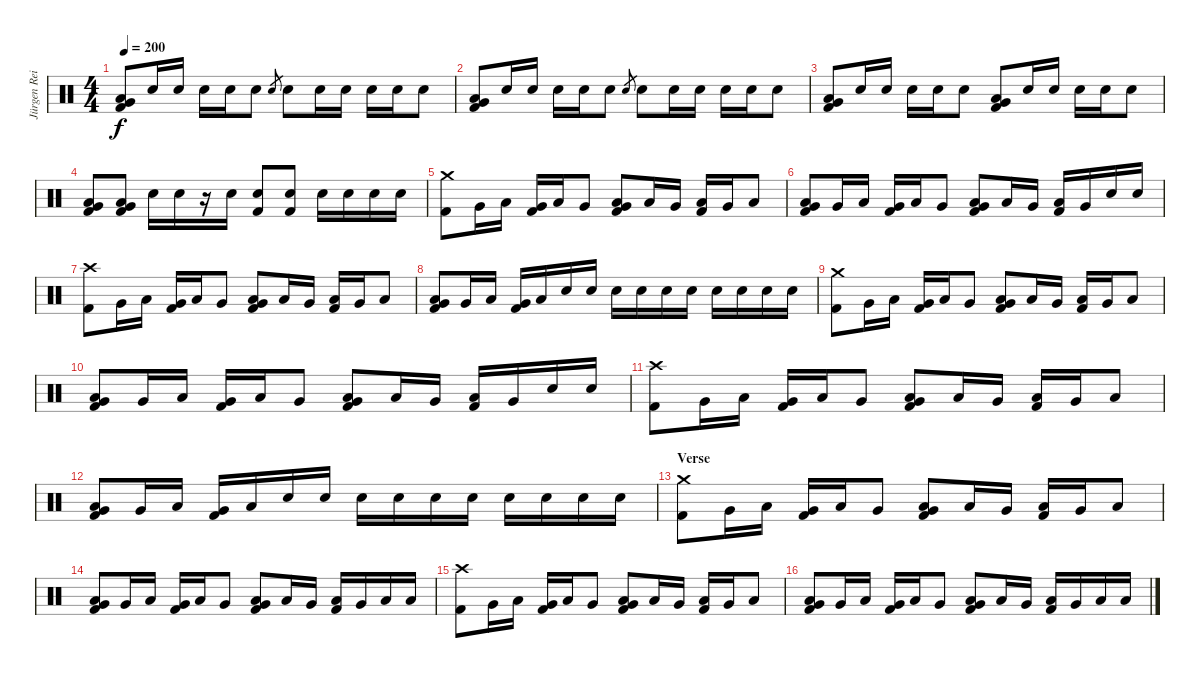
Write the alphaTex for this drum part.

\track ("Jürgen Reil" "Jürgen Rei") {instrument percussion}
\staff {score}
\articulation defaults
\ts (4 4)
\tempo 200
\clef neutral
\ks c
("Very Low Tom (hit)" "Low Floor Tom (hit)" "Kick (hit) 2").8{dy f} "Electric Snare (hit)".16 "Electric Snare (hit)".16 "Electric Snare (hit)".16 "Electric Snare (hit)".16 "Electric Snare (hit)".8 "Electric Snare (hit)".8{gr} "Electric Snare (hit)".8 "Electric Snare (hit)".16 "Electric Snare (hit)".16 "Electric Snare (hit)".16 "Electric Snare (hit)".16 "Electric Snare (hit)".8 |
("Very Low Tom (hit)" "Low Floor Tom (hit)" "Kick (hit) 2").8 "Electric Snare (hit)".16 "Electric Snare (hit)".16 "Electric Snare (hit)".16 "Electric Snare (hit)".16 "Electric Snare (hit)".8 "Electric Snare (hit)".8{gr} "Electric Snare (hit)".8 "Electric Snare (hit)".16 "Electric Snare (hit)".16 "Electric Snare (hit)".16 "Electric Snare (hit)".16 "Electric Snare (hit)".8 |
("Very Low Tom (hit)" "Low Floor Tom (hit)" "Kick (hit) 2").8 "Electric Snare (hit)".16 "Electric Snare (hit)".16 "Electric Snare (hit)".16 "Electric Snare (hit)".16 "Electric Snare (hit)".8 ("Very Low Tom (hit)" "Low Floor Tom (hit)" "Kick (hit) 2").8 "Electric Snare (hit)".16 "Electric Snare (hit)".16 "Electric Snare (hit)".16 "Electric Snare (hit)".16 "Electric Snare (hit)".8 |
("Very Low Tom (hit)" "Low Floor Tom (hit)" "Kick (hit) 2").8 ("Very Low Tom (hit)" "Low Floor Tom (hit)" "Kick (hit) 2").8 "Electric Snare (hit)".16 "Electric Snare (hit)".16 r.16 "Electric Snare (hit)".16 ("Electric Snare (hit)" "Kick (hit) 2").8 ("Electric Snare (hit)" "Kick (hit) 2").8 "Electric Snare (hit)".16 "Electric Snare (hit)".16 "Electric Snare (hit)".16 "Electric Snare (hit)".16 |
("Crash medium (hit)" "Kick (hit) 2").8 "Very Low Tom (hit)".16 "Low Tom (hit)".16 ("Very Low Tom (hit)" "Kick (hit) 2").16 "Low Tom (hit)".16 "Very Low Tom (hit)".8 ("Low Tom (hit)" "Very Low Tom (hit)" "Kick (hit) 2").8 "Low Tom (hit)".16 "Very Low Tom (hit)".16 ("Low Tom (hit)" "Kick (hit) 2").16 "Very Low Tom (hit)".16 "Low Tom (hit)".8 |
("Low Tom (hit)" "Very Low Tom (hit)" "Kick (hit) 2").8 "Very Low Tom (hit)".16 "Low Tom (hit)".16 ("Very Low Tom (hit)" "Kick (hit) 2").16 "Low Tom (hit)".16 "Very Low Tom (hit)".8 ("Low Tom (hit)" "Very Low Tom (hit)" "Kick (hit) 2").8 "Low Tom (hit)".16 "Very Low Tom (hit)".16 ("Low Tom (hit)" "Kick (hit) 2").16 "Very Low Tom (hit)".16 "Electric Snare (hit)".16 "Electric Snare (hit)".16 |
("Crash high (hit)" "Kick (hit) 2").8 "Very Low Tom (hit)".16 "Low Tom (hit)".16 ("Very Low Tom (hit)" "Kick (hit) 2").16 "Low Tom (hit)".16 "Very Low Tom (hit)".8 ("Low Tom (hit)" "Very Low Tom (hit)" "Kick (hit) 2").8 "Low Tom (hit)".16 "Very Low Tom (hit)".16 ("Low Tom (hit)" "Kick (hit) 2").16 "Very Low Tom (hit)".16 "Low Tom (hit)".8 |
("Low Tom (hit)" "Very Low Tom (hit)" "Kick (hit) 2").8 "Very Low Tom (hit)".16 "Low Tom (hit)".16 ("Very Low Tom (hit)" "Kick (hit) 2").16 "Low Tom (hit)".16 "Electric Snare (hit)".16 "Electric Snare (hit)".16 "Electric Snare (hit)".16 "Electric Snare (hit)".16 "Electric Snare (hit)".16 "Electric Snare (hit)".16 "Electric Snare (hit)".16 "Electric Snare (hit)".16 "Electric Snare (hit)".16 "Electric Snare (hit)".16 |
("Crash medium (hit)" "Kick (hit) 2").8 "Very Low Tom (hit)".16 "Low Tom (hit)".16 ("Very Low Tom (hit)" "Kick (hit) 2").16 "Low Tom (hit)".16 "Very Low Tom (hit)".8 ("Low Tom (hit)" "Very Low Tom (hit)" "Kick (hit) 2").8 "Low Tom (hit)".16 "Very Low Tom (hit)".16 ("Low Tom (hit)" "Kick (hit) 2").16 "Very Low Tom (hit)".16 "Low Tom (hit)".8 |
("Low Tom (hit)" "Very Low Tom (hit)" "Kick (hit) 2").8 "Very Low Tom (hit)".16 "Low Tom (hit)".16 ("Very Low Tom (hit)" "Kick (hit) 2").16 "Low Tom (hit)".16 "Very Low Tom (hit)".8 ("Low Tom (hit)" "Very Low Tom (hit)" "Kick (hit) 2").8 "Low Tom (hit)".16 "Very Low Tom (hit)".16 ("Low Tom (hit)" "Kick (hit) 2").16 "Very Low Tom (hit)".16 "Electric Snare (hit)".16 "Electric Snare (hit)".16 |
("Crash high (hit)" "Kick (hit) 2").8 "Very Low Tom (hit)".16 "Low Tom (hit)".16 ("Very Low Tom (hit)" "Kick (hit) 2").16 "Low Tom (hit)".16 "Very Low Tom (hit)".8 ("Low Tom (hit)" "Very Low Tom (hit)" "Kick (hit) 2").8 "Low Tom (hit)".16 "Very Low Tom (hit)".16 ("Low Tom (hit)" "Kick (hit) 2").16 "Very Low Tom (hit)".16 "Low Tom (hit)".8 |
("Low Tom (hit)" "Very Low Tom (hit)" "Kick (hit) 2").8 "Very Low Tom (hit)".16 "Low Tom (hit)".16 ("Very Low Tom (hit)" "Kick (hit) 2").16 "Low Tom (hit)".16 "Electric Snare (hit)".16 "Electric Snare (hit)".16 "Electric Snare (hit)".16 "Electric Snare (hit)".16 "Electric Snare (hit)".16 "Electric Snare (hit)".16 "Electric Snare (hit)".16 "Electric Snare (hit)".16 "Electric Snare (hit)".16 "Electric Snare (hit)".16 |
\section ("" "Verse")
("Crash medium (hit)" "Kick (hit) 2").8 "Very Low Tom (hit)".16 "Low Tom (hit)".16 ("Very Low Tom (hit)" "Kick (hit) 2").16 "Low Tom (hit)".16 "Very Low Tom (hit)".8 ("Low Tom (hit)" "Very Low Tom (hit)" "Kick (hit) 2").8 "Low Tom (hit)".16 "Very Low Tom (hit)".16 ("Low Tom (hit)" "Kick (hit) 2").16 "Very Low Tom (hit)".16 "Low Tom (hit)".8 |
("Low Tom (hit)" "Very Low Tom (hit)" "Kick (hit) 2").8 "Very Low Tom (hit)".16 "Low Tom (hit)".16 ("Very Low Tom (hit)" "Kick (hit) 2").16 "Low Tom (hit)".16 "Very Low Tom (hit)".8 ("Low Tom (hit)" "Very Low Tom (hit)" "Kick (hit) 2").8 "Low Tom (hit)".16 "Very Low Tom (hit)".16 ("Low Tom (hit)" "Kick (hit) 2").16 "Very Low Tom (hit)".16 "Low Tom (hit)".16 "Low Tom (hit)".16 |
("Crash high (hit)" "Kick (hit) 2").8 "Very Low Tom (hit)".16 "Low Tom (hit)".16 ("Very Low Tom (hit)" "Kick (hit) 2").16 "Low Tom (hit)".16 "Very Low Tom (hit)".8 ("Low Tom (hit)" "Very Low Tom (hit)" "Kick (hit) 2").8 "Low Tom (hit)".16 "Very Low Tom (hit)".16 ("Low Tom (hit)" "Kick (hit) 2").16 "Very Low Tom (hit)".16 "Low Tom (hit)".8 |
("Low Tom (hit)" "Very Low Tom (hit)" "Kick (hit) 2").8 "Very Low Tom (hit)".16 "Low Tom (hit)".16 ("Very Low Tom (hit)" "Kick (hit) 2").16 "Low Tom (hit)".16 "Very Low Tom (hit)".8 ("Low Tom (hit)" "Very Low Tom (hit)" "Kick (hit) 2").8 "Low Tom (hit)".16 "Very Low Tom (hit)".16 ("Low Tom (hit)" "Kick (hit) 2").16 "Very Low Tom (hit)".16 "Low Floor Tom (hit)".16 "Low Floor Tom (hit)".16
